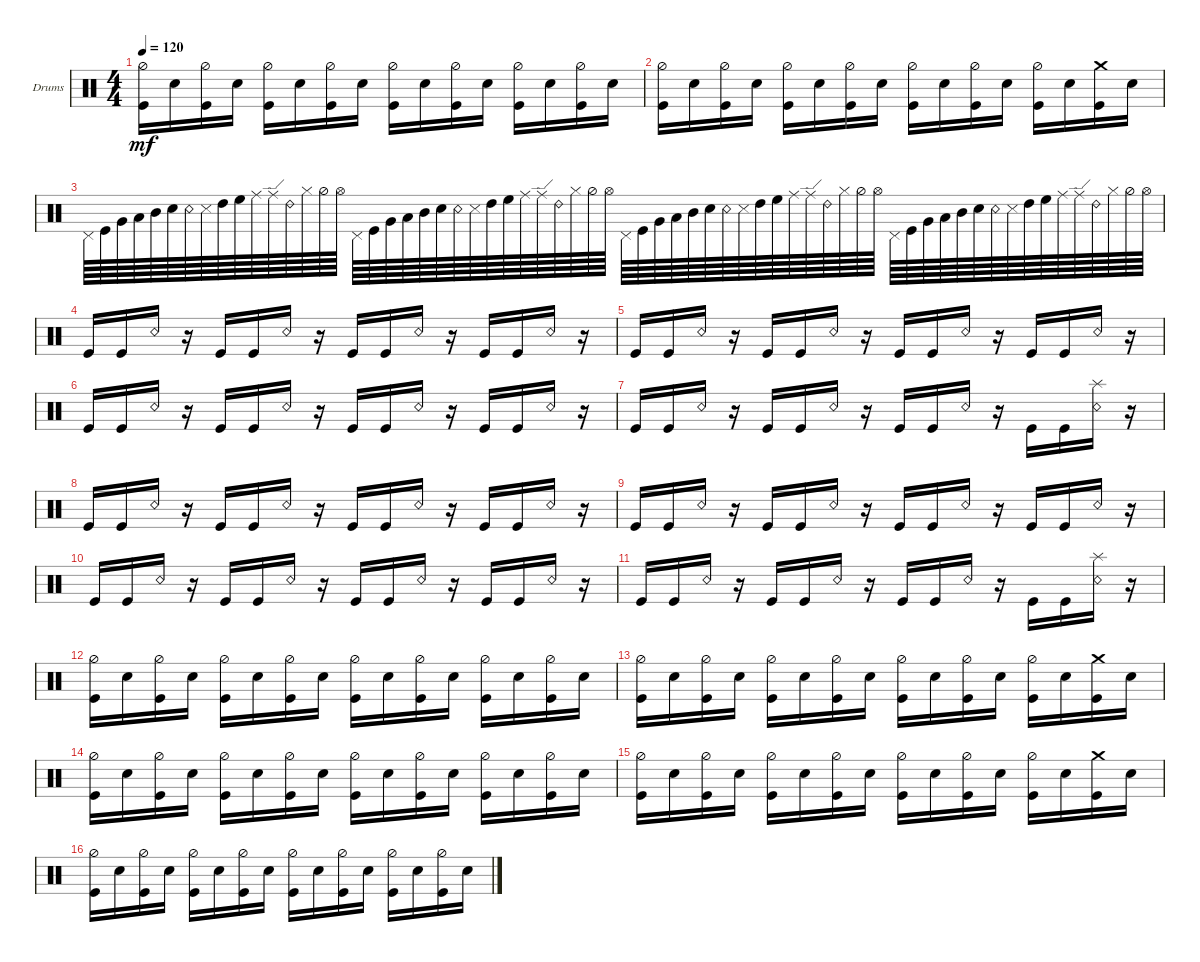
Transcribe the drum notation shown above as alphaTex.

\defaultSystemsLayout 4
\bracketExtendMode groupsimilarinstruments
\firstSystemTrackNameOrientation horizontal
\otherSystemsTrackNameOrientation horizontal
\track ("Drumkit" "Drums") {instrument percussion}
\staff {score}
\articulation defaults
\ts (4 4)
\tempo 120
\clef neutral
\ks c
("Kick (hit)" "Hi-Hat (half)").16{dy mf} "Snare (hit) 2".16 ("Kick (hit)" "Hi-Hat (half)").16 "Snare (hit) 2".16 ("Kick (hit)" "Hi-Hat (half)").16 "Snare (hit) 2".16 ("Kick (hit)" "Hi-Hat (half)").16 "Snare (hit) 2".16 ("Kick (hit)" "Hi-Hat (half)").16 "Snare (hit) 2".16 ("Kick (hit)" "Hi-Hat (half)").16 "Snare (hit) 2".16 ("Kick (hit)" "Hi-Hat (half)").16 "Snare (hit) 2".16 ("Kick (hit)" "Hi-Hat (half)").16 "Snare (hit) 2".16 |
("Kick (hit)" "Hi-Hat (half)").16 "Snare (hit) 2".16 ("Kick (hit)" "Hi-Hat (half)").16 "Snare (hit) 2".16 ("Kick (hit)" "Hi-Hat (half)").16 "Snare (hit) 2".16 ("Kick (hit)" "Hi-Hat (half)").16 "Snare (hit) 2".16 ("Kick (hit)" "Hi-Hat (half)").16 "Snare (hit) 2".16 ("Kick (hit)" "Hi-Hat (half)").16 "Snare (hit) 2".16 ("Kick (hit)" "Hi-Hat (half)").16 "Snare (hit) 2".16 ("Kick (hit)" "Crash medium (hit)").16 "Snare (hit) 2".16 |
"Pedal Hi-Hat (hit)".64 "Kick (hit)".64 "Very Low Tom (hit)".64 "Low Tom (hit)".64 "Mid Tom (hit)".64 "Snare (hit) 2".64 "Snare (rim shot)".64 "Snare (side stick) 3".64 "High Tom (hit)".64 "High Floor Tom (hit)".64 "Ride (middle)".64 "Ride (edge)".64 "Ride (bell) 2".64 "Hi-Hat (closed)".64 "Hi-Hat (half)".64 "Hi-Hat (open)".64 "Pedal Hi-Hat (hit)".64 "Kick (hit)".64 "Very Low Tom (hit)".64 "Low Tom (hit)".64 "Mid Tom (hit)".64 "Snare (hit) 2".64 "Snare (rim shot)".64 "Snare (side stick) 3".64 "High Tom (hit)".64 "High Floor Tom (hit)".64 "Ride (middle)".64 "Ride (edge)".64 "Ride (bell) 2".64 "Hi-Hat (closed)".64 "Hi-Hat (half)".64 "Hi-Hat (open)".64 "Pedal Hi-Hat (hit)".64 "Kick (hit)".64 "Very Low Tom (hit)".64 "Low Tom (hit)".64 "Mid Tom (hit)".64 "Snare (hit) 2".64 "Snare (rim shot)".64 "Snare (side stick) 3".64 "High Tom (hit)".64 "High Floor Tom (hit)".64 "Ride (middle)".64 "Ride (edge)".64 "Ride (bell) 2".64 "Hi-Hat (closed)".64 "Hi-Hat (half)".64 "Hi-Hat (open)".64 "Pedal Hi-Hat (hit)".64 "Kick (hit)".64 "Very Low Tom (hit)".64 "Low Tom (hit)".64 "Mid Tom (hit)".64 "Snare (hit) 2".64 "Snare (rim shot)".64 "Snare (side stick) 3".64 "High Tom (hit)".64 "High Floor Tom (hit)".64 "Ride (middle)".64 "Ride (edge)".64 "Ride (bell) 2".64 "Hi-Hat (closed)".64 "Hi-Hat (half)".64 "Hi-Hat (open)".64 |
"Kick (hit)".16 "Kick (hit)".16 "Snare (rim shot)".16 r.16 "Kick (hit)".16 "Kick (hit)".16 "Snare (rim shot)".16 r.16 "Kick (hit)".16 "Kick (hit)".16 "Snare (rim shot)".16 r.16 "Kick (hit)".16 "Kick (hit)".16 "Snare (rim shot)".16 r.16 |
"Kick (hit)".16 "Kick (hit)".16 "Snare (rim shot)".16 r.16 "Kick (hit)".16 "Kick (hit)".16 "Snare (rim shot)".16 r.16 "Kick (hit)".16 "Kick (hit)".16 "Snare (rim shot)".16 r.16 "Kick (hit)".16 "Kick (hit)".16 "Snare (rim shot)".16 r.16 |
"Kick (hit)".16 "Kick (hit)".16 "Snare (rim shot)".16 r.16 "Kick (hit)".16 "Kick (hit)".16 "Snare (rim shot)".16 r.16 "Kick (hit)".16 "Kick (hit)".16 "Snare (rim shot)".16 r.16 "Kick (hit)".16 "Kick (hit)".16 "Snare (rim shot)".16 r.16 |
"Kick (hit)".16 "Kick (hit)".16 "Snare (rim shot)".16 r.16 "Kick (hit)".16 "Kick (hit)".16 "Snare (rim shot)".16 r.16 "Kick (hit)".16 "Kick (hit)".16 "Snare (rim shot)".16 r.16 "Kick (hit)".16 "Kick (hit)".16 ("Snare (rim shot)" "Splash (hit)").16 r.16 |
"Kick (hit)".16 "Kick (hit)".16 "Snare (rim shot)".16 r.16 "Kick (hit)".16 "Kick (hit)".16 "Snare (rim shot)".16 r.16 "Kick (hit)".16 "Kick (hit)".16 "Snare (rim shot)".16 r.16 "Kick (hit)".16 "Kick (hit)".16 "Snare (rim shot)".16 r.16 |
"Kick (hit)".16 "Kick (hit)".16 "Snare (rim shot)".16 r.16 "Kick (hit)".16 "Kick (hit)".16 "Snare (rim shot)".16 r.16 "Kick (hit)".16 "Kick (hit)".16 "Snare (rim shot)".16 r.16 "Kick (hit)".16 "Kick (hit)".16 "Snare (rim shot)".16 r.16 |
"Kick (hit)".16 "Kick (hit)".16 "Snare (rim shot)".16 r.16 "Kick (hit)".16 "Kick (hit)".16 "Snare (rim shot)".16 r.16 "Kick (hit)".16 "Kick (hit)".16 "Snare (rim shot)".16 r.16 "Kick (hit)".16 "Kick (hit)".16 "Snare (rim shot)".16 r.16 |
"Kick (hit)".16 "Kick (hit)".16 "Snare (rim shot)".16 r.16 "Kick (hit)".16 "Kick (hit)".16 "Snare (rim shot)".16 r.16 "Kick (hit)".16 "Kick (hit)".16 "Snare (rim shot)".16 r.16 "Kick (hit)".16 "Kick (hit)".16 ("Snare (rim shot)" "Splash (hit)").16 r.16 |
("Kick (hit)" "Hi-Hat (half)").16 "Snare (hit) 2".16 ("Kick (hit)" "Hi-Hat (half)").16 "Snare (hit) 2".16 ("Kick (hit)" "Hi-Hat (half)").16 "Snare (hit) 2".16 ("Kick (hit)" "Hi-Hat (half)").16 "Snare (hit) 2".16 ("Kick (hit)" "Hi-Hat (half)").16 "Snare (hit) 2".16 ("Kick (hit)" "Hi-Hat (half)").16 "Snare (hit) 2".16 ("Kick (hit)" "Hi-Hat (half)").16 "Snare (hit) 2".16 ("Kick (hit)" "Hi-Hat (half)").16 "Snare (hit) 2".16 |
("Kick (hit)" "Hi-Hat (half)").16 "Snare (hit) 2".16 ("Kick (hit)" "Hi-Hat (half)").16 "Snare (hit) 2".16 ("Kick (hit)" "Hi-Hat (half)").16 "Snare (hit) 2".16 ("Kick (hit)" "Hi-Hat (half)").16 "Snare (hit) 2".16 ("Kick (hit)" "Hi-Hat (half)").16 "Snare (hit) 2".16 ("Kick (hit)" "Hi-Hat (half)").16 "Snare (hit) 2".16 ("Kick (hit)" "Hi-Hat (half)").16 "Snare (hit) 2".16 ("Kick (hit)" "Crash medium (hit)").16 "Snare (hit) 2".16 |
("Kick (hit)" "Hi-Hat (half)").16 "Snare (hit) 2".16 ("Kick (hit)" "Hi-Hat (half)").16 "Snare (hit) 2".16 ("Kick (hit)" "Hi-Hat (half)").16 "Snare (hit) 2".16 ("Kick (hit)" "Hi-Hat (half)").16 "Snare (hit) 2".16 ("Kick (hit)" "Hi-Hat (half)").16 "Snare (hit) 2".16 ("Kick (hit)" "Hi-Hat (half)").16 "Snare (hit) 2".16 ("Kick (hit)" "Hi-Hat (half)").16 "Snare (hit) 2".16 ("Kick (hit)" "Hi-Hat (half)").16 "Snare (hit) 2".16 |
("Kick (hit)" "Hi-Hat (half)").16 "Snare (hit) 2".16 ("Kick (hit)" "Hi-Hat (half)").16 "Snare (hit) 2".16 ("Kick (hit)" "Hi-Hat (half)").16 "Snare (hit) 2".16 ("Kick (hit)" "Hi-Hat (half)").16 "Snare (hit) 2".16 ("Kick (hit)" "Hi-Hat (half)").16 "Snare (hit) 2".16 ("Kick (hit)" "Hi-Hat (half)").16 "Snare (hit) 2".16 ("Kick (hit)" "Hi-Hat (half)").16 "Snare (hit) 2".16 ("Kick (hit)" "Crash medium (hit)").16 "Snare (hit) 2".16 |
("Kick (hit)" "Hi-Hat (half)").16 "Snare (hit) 2".16 ("Kick (hit)" "Hi-Hat (half)").16 "Snare (hit) 2".16 ("Kick (hit)" "Hi-Hat (half)").16 "Snare (hit) 2".16 ("Kick (hit)" "Hi-Hat (half)").16 "Snare (hit) 2".16 ("Kick (hit)" "Hi-Hat (half)").16 "Snare (hit) 2".16 ("Kick (hit)" "Hi-Hat (half)").16 "Snare (hit) 2".16 ("Kick (hit)" "Hi-Hat (half)").16 "Snare (hit) 2".16 ("Kick (hit)" "Hi-Hat (half)").16 "Snare (hit) 2".16
